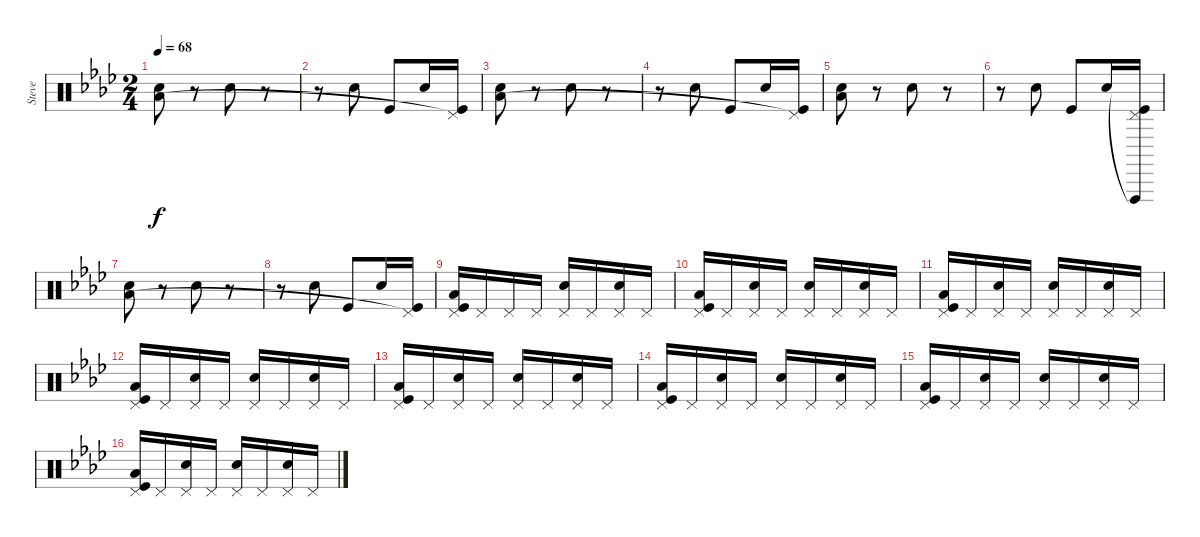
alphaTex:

\track ("Steve" "Steve") {instrument percussion}
\staff {score}
\articulation defaults
\ts (2 4)
\tempo 68
\clef neutral
\ks fminor
("Electric Snare (hit)" "Low Floor Tom (hit)").8{dy f} r.8 "Electric Snare (hit)".8 r.8 |
r.8 "Electric Snare (hit)".8 "Kick (hit)".8 "Electric Snare (hit)".16 ("Kick (hit)" "Pedal Hi-Hat (hit)"{t}).16 |
("Electric Snare (hit)" "Low Floor Tom (hit)").8 r.8 "Electric Snare (hit)".8 r.8 |
r.8 "Electric Snare (hit)".8 "Kick (hit)".8 "Electric Snare (hit)".16 ("Kick (hit)" "Pedal Hi-Hat (hit)"{t}).16 |
("Electric Snare (hit)" "Low Floor Tom (hit)").8 r.8 "Electric Snare (hit)".8 r.8 |
r.8 "Electric Snare (hit)".8 "Kick (hit)".8 "Electric Snare (hit)".16 ("Vibraslap (hit)"{t} "Kick (hit)" "Pedal Hi-Hat (hit)").16 |
("Electric Snare (hit)" "Low Floor Tom (hit)").8 r.8 "Electric Snare (hit)".8 r.8 |
r.8 "Electric Snare (hit)".8 "Kick (hit)".8 "Electric Snare (hit)".16 ("Kick (hit)" "Pedal Hi-Hat (hit)"{t}).16 |
("Kick (hit)" "Pedal Hi-Hat (hit)" "Low Floor Tom (hit)").16 "Pedal Hi-Hat (hit)".16 "Pedal Hi-Hat (hit)".16 "Pedal Hi-Hat (hit)".16 ("Electric Snare (hit)" "Pedal Hi-Hat (hit)").16 "Pedal Hi-Hat (hit)".16 ("Electric Snare (hit)" "Pedal Hi-Hat (hit)").16 "Pedal Hi-Hat (hit)".16 |
("Kick (hit)" "Pedal Hi-Hat (hit)" "Low Floor Tom (hit)").16 "Pedal Hi-Hat (hit)".16 ("Electric Snare (hit)" "Pedal Hi-Hat (hit)").16 "Pedal Hi-Hat (hit)".16 ("Electric Snare (hit)" "Pedal Hi-Hat (hit)").16 "Pedal Hi-Hat (hit)".16 ("Electric Snare (hit)" "Pedal Hi-Hat (hit)").16 "Pedal Hi-Hat (hit)".16 |
("Kick (hit)" "Pedal Hi-Hat (hit)" "Low Floor Tom (hit)").16 "Pedal Hi-Hat (hit)".16 ("Electric Snare (hit)" "Pedal Hi-Hat (hit)").16 "Pedal Hi-Hat (hit)".16 ("Electric Snare (hit)" "Pedal Hi-Hat (hit)").16 "Pedal Hi-Hat (hit)".16 ("Electric Snare (hit)" "Pedal Hi-Hat (hit)").16 "Pedal Hi-Hat (hit)".16 |
("Kick (hit)" "Pedal Hi-Hat (hit)" "Low Floor Tom (hit)").16 "Pedal Hi-Hat (hit)".16 ("Electric Snare (hit)" "Pedal Hi-Hat (hit)").16 "Pedal Hi-Hat (hit)".16 ("Electric Snare (hit)" "Pedal Hi-Hat (hit)").16 "Pedal Hi-Hat (hit)".16 ("Electric Snare (hit)" "Pedal Hi-Hat (hit)").16 "Pedal Hi-Hat (hit)".16 |
("Kick (hit)" "Pedal Hi-Hat (hit)" "Low Floor Tom (hit)").16 "Pedal Hi-Hat (hit)".16 ("Electric Snare (hit)" "Pedal Hi-Hat (hit)").16 "Pedal Hi-Hat (hit)".16 ("Electric Snare (hit)" "Pedal Hi-Hat (hit)").16 "Pedal Hi-Hat (hit)".16 ("Electric Snare (hit)" "Pedal Hi-Hat (hit)").16 "Pedal Hi-Hat (hit)".16 |
("Kick (hit)" "Pedal Hi-Hat (hit)" "Low Floor Tom (hit)").16 "Pedal Hi-Hat (hit)".16 ("Electric Snare (hit)" "Pedal Hi-Hat (hit)").16 "Pedal Hi-Hat (hit)".16 ("Electric Snare (hit)" "Pedal Hi-Hat (hit)").16 "Pedal Hi-Hat (hit)".16 ("Electric Snare (hit)" "Pedal Hi-Hat (hit)").16 "Pedal Hi-Hat (hit)".16 |
("Kick (hit)" "Pedal Hi-Hat (hit)" "Low Floor Tom (hit)").16 "Pedal Hi-Hat (hit)".16 ("Electric Snare (hit)" "Pedal Hi-Hat (hit)").16 "Pedal Hi-Hat (hit)".16 ("Electric Snare (hit)" "Pedal Hi-Hat (hit)").16 "Pedal Hi-Hat (hit)".16 ("Electric Snare (hit)" "Pedal Hi-Hat (hit)").16 "Pedal Hi-Hat (hit)".16 |
("Kick (hit)" "Pedal Hi-Hat (hit)" "Low Floor Tom (hit)").16 "Pedal Hi-Hat (hit)".16 ("Electric Snare (hit)" "Pedal Hi-Hat (hit)").16 "Pedal Hi-Hat (hit)".16 ("Electric Snare (hit)" "Pedal Hi-Hat (hit)").16 "Pedal Hi-Hat (hit)".16 ("Electric Snare (hit)" "Pedal Hi-Hat (hit)").16 "Pedal Hi-Hat (hit)".16
